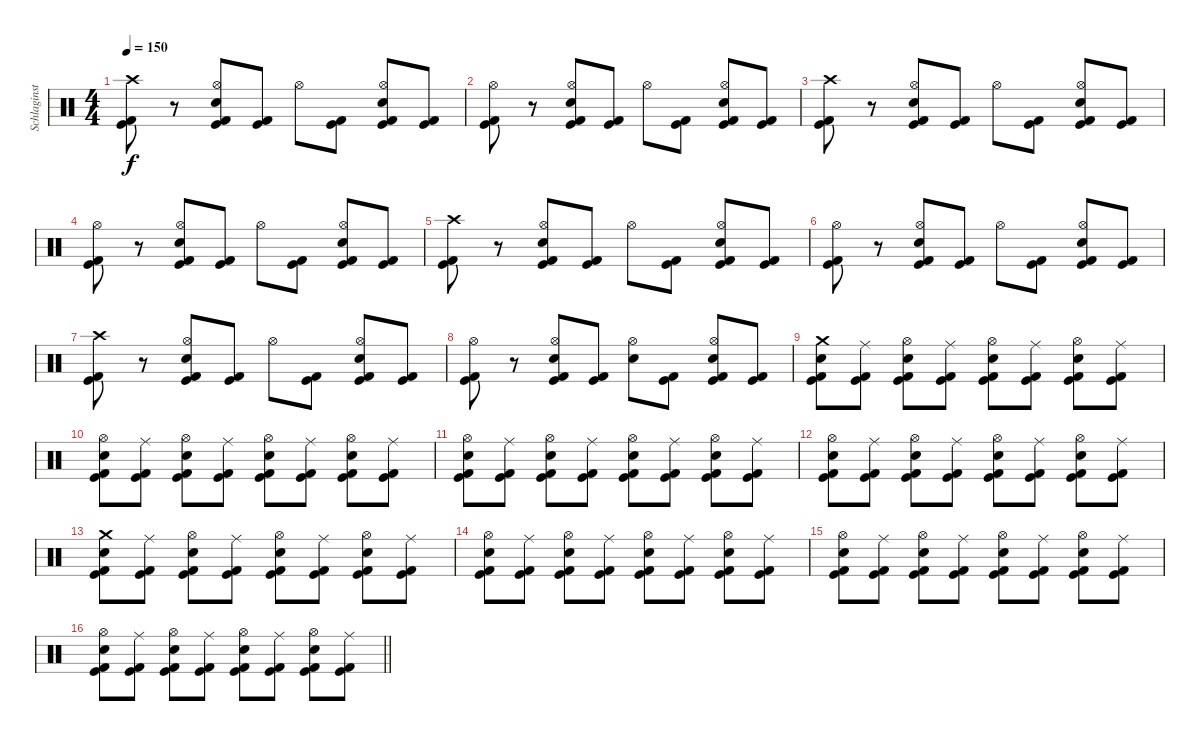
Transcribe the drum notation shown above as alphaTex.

\track ("Schlaginstrumente - Auswahl" "Schlaginst") {instrument percussion}
\staff {score}
\articulation defaults
\ts (4 4)
\tempo 150
\clef neutral
\ks c
("Crash high (hit)" "Kick (hit)" "Kick (hit) 2").8{dy f} r.8 ("Hi-Hat (open)" "Electric Snare (hit)" "Kick (hit)" "Kick (hit) 2").8 ("Kick (hit)" "Kick (hit) 2").8 "Hi-Hat (open)".8 ("Kick (hit)" "Kick (hit) 2").8 ("Hi-Hat (open)" "Electric Snare (hit)" "Kick (hit)" "Kick (hit) 2").8 ("Kick (hit)" "Kick (hit) 2").8 |
("Hi-Hat (open)" "Kick (hit)" "Kick (hit) 2").8 r.8 ("Hi-Hat (open)" "Electric Snare (hit)" "Kick (hit)" "Kick (hit) 2").8 ("Kick (hit)" "Kick (hit) 2").8 "Hi-Hat (open)".8 ("Kick (hit)" "Kick (hit) 2").8 ("Hi-Hat (open)" "Electric Snare (hit)" "Kick (hit)" "Kick (hit) 2").8 ("Kick (hit)" "Kick (hit) 2").8 |
("Crash high (hit)" "Kick (hit)" "Kick (hit) 2").8 r.8 ("Hi-Hat (open)" "Electric Snare (hit)" "Kick (hit)" "Kick (hit) 2").8 ("Kick (hit)" "Kick (hit) 2").8 "Hi-Hat (open)".8 ("Kick (hit)" "Kick (hit) 2").8 ("Hi-Hat (open)" "Electric Snare (hit)" "Kick (hit)" "Kick (hit) 2").8 ("Kick (hit)" "Kick (hit) 2").8 |
("Hi-Hat (open)" "Kick (hit)" "Kick (hit) 2").8 r.8 ("Hi-Hat (open)" "Electric Snare (hit)" "Kick (hit)" "Kick (hit) 2").8 ("Kick (hit)" "Kick (hit) 2").8 "Hi-Hat (open)".8 ("Kick (hit)" "Kick (hit) 2").8 ("Hi-Hat (open)" "Electric Snare (hit)" "Kick (hit)" "Kick (hit) 2").8 ("Kick (hit)" "Kick (hit) 2").8 |
("Crash high (hit)" "Kick (hit)" "Kick (hit) 2").8 r.8 ("Hi-Hat (open)" "Electric Snare (hit)" "Kick (hit)" "Kick (hit) 2").8 ("Kick (hit)" "Kick (hit) 2").8 "Hi-Hat (open)".8 ("Kick (hit)" "Kick (hit) 2").8 ("Hi-Hat (open)" "Electric Snare (hit)" "Kick (hit)" "Kick (hit) 2").8 ("Kick (hit)" "Kick (hit) 2").8 |
("Hi-Hat (open)" "Kick (hit)" "Kick (hit) 2").8 r.8 ("Hi-Hat (open)" "Electric Snare (hit)" "Kick (hit)" "Kick (hit) 2").8 ("Kick (hit)" "Kick (hit) 2").8 "Hi-Hat (open)".8 ("Kick (hit)" "Kick (hit) 2").8 ("Hi-Hat (open)" "Electric Snare (hit)" "Kick (hit)" "Kick (hit) 2").8 ("Kick (hit)" "Kick (hit) 2").8 |
("Crash high (hit)" "Kick (hit)" "Kick (hit) 2").8 r.8 ("Hi-Hat (open)" "Electric Snare (hit)" "Kick (hit)" "Kick (hit) 2").8 ("Kick (hit)" "Kick (hit) 2").8 "Hi-Hat (open)".8 ("Kick (hit)" "Kick (hit) 2").8 ("Hi-Hat (open)" "Electric Snare (hit)" "Kick (hit)" "Kick (hit) 2").8 ("Kick (hit)" "Kick (hit) 2").8 |
("Hi-Hat (open)" "Kick (hit)" "Kick (hit) 2").8 r.8 ("Hi-Hat (open)" "Electric Snare (hit)" "Kick (hit)" "Kick (hit) 2").8 ("Kick (hit)" "Kick (hit) 2").8 ("Hi-Hat (open)" "Electric Snare (hit)").8 ("Kick (hit)" "Kick (hit) 2").8 ("Hi-Hat (open)" "Electric Snare (hit)" "Kick (hit)" "Kick (hit) 2").8 ("Kick (hit)" "Kick (hit) 2").8 |
("Crash medium (hit)" "Electric Snare (hit)" "Kick (hit)" "Kick (hit) 2").8 ("Ride (middle)" "Kick (hit)" "Kick (hit) 2").8 ("Hi-Hat (open)" "Electric Snare (hit)" "Kick (hit)" "Kick (hit) 2").8 ("Ride (middle)" "Kick (hit)" "Kick (hit) 2").8 ("Hi-Hat (open)" "Electric Snare (hit)" "Kick (hit)" "Kick (hit) 2").8 ("Ride (middle)" "Kick (hit)" "Kick (hit) 2").8 ("Hi-Hat (open)" "Electric Snare (hit)" "Kick (hit)" "Kick (hit) 2").8 ("Ride (middle)" "Kick (hit)" "Kick (hit) 2").8 |
("Hi-Hat (open)" "Electric Snare (hit)" "Kick (hit)" "Kick (hit) 2").8 ("Ride (middle)" "Kick (hit)" "Kick (hit) 2").8 ("Hi-Hat (open)" "Electric Snare (hit)" "Kick (hit)" "Kick (hit) 2").8 ("Ride (middle)" "Kick (hit)" "Kick (hit) 2").8 ("Hi-Hat (open)" "Electric Snare (hit)" "Kick (hit)" "Kick (hit) 2").8 ("Ride (middle)" "Kick (hit)" "Kick (hit) 2").8 ("Hi-Hat (open)" "Electric Snare (hit)" "Kick (hit)" "Kick (hit) 2").8 ("Ride (middle)" "Kick (hit)" "Kick (hit) 2").8 |
("Hi-Hat (open)" "Electric Snare (hit)" "Kick (hit)" "Kick (hit) 2").8 ("Ride (middle)" "Kick (hit)" "Kick (hit) 2").8 ("Hi-Hat (open)" "Electric Snare (hit)" "Kick (hit)" "Kick (hit) 2").8 ("Ride (middle)" "Kick (hit)" "Kick (hit) 2").8 ("Hi-Hat (open)" "Electric Snare (hit)" "Kick (hit)" "Kick (hit) 2").8 ("Ride (middle)" "Kick (hit)" "Kick (hit) 2").8 ("Hi-Hat (open)" "Electric Snare (hit)" "Kick (hit)" "Kick (hit) 2").8 ("Ride (middle)" "Kick (hit)" "Kick (hit) 2").8 |
("Hi-Hat (open)" "Electric Snare (hit)" "Kick (hit)" "Kick (hit) 2").8 ("Ride (middle)" "Kick (hit)" "Kick (hit) 2").8 ("Hi-Hat (open)" "Electric Snare (hit)" "Kick (hit)" "Kick (hit) 2").8 ("Ride (middle)" "Kick (hit)" "Kick (hit) 2").8 ("Hi-Hat (open)" "Electric Snare (hit)" "Kick (hit)" "Kick (hit) 2").8 ("Ride (middle)" "Kick (hit)" "Kick (hit) 2").8 ("Hi-Hat (open)" "Electric Snare (hit)" "Kick (hit)" "Kick (hit) 2").8 ("Ride (middle)" "Kick (hit)" "Kick (hit) 2").8 |
("Crash medium (hit)" "Electric Snare (hit)" "Kick (hit)" "Kick (hit) 2").8 ("Ride (middle)" "Kick (hit)" "Kick (hit) 2").8 ("Hi-Hat (open)" "Electric Snare (hit)" "Kick (hit)" "Kick (hit) 2").8 ("Ride (middle)" "Kick (hit)" "Kick (hit) 2").8 ("Hi-Hat (open)" "Electric Snare (hit)" "Kick (hit)" "Kick (hit) 2").8 ("Ride (middle)" "Kick (hit)" "Kick (hit) 2").8 ("Hi-Hat (open)" "Electric Snare (hit)" "Kick (hit)" "Kick (hit) 2").8 ("Ride (middle)" "Kick (hit)" "Kick (hit) 2").8 |
("Hi-Hat (open)" "Electric Snare (hit)" "Kick (hit)" "Kick (hit) 2").8 ("Ride (middle)" "Kick (hit)" "Kick (hit) 2").8 ("Hi-Hat (open)" "Electric Snare (hit)" "Kick (hit)" "Kick (hit) 2").8 ("Ride (middle)" "Kick (hit)" "Kick (hit) 2").8 ("Hi-Hat (open)" "Electric Snare (hit)" "Kick (hit)" "Kick (hit) 2").8 ("Ride (middle)" "Kick (hit)" "Kick (hit) 2").8 ("Hi-Hat (open)" "Electric Snare (hit)" "Kick (hit)" "Kick (hit) 2").8 ("Ride (middle)" "Kick (hit)" "Kick (hit) 2").8 |
("Hi-Hat (open)" "Electric Snare (hit)" "Kick (hit)" "Kick (hit) 2").8 ("Ride (middle)" "Kick (hit)" "Kick (hit) 2").8 ("Hi-Hat (open)" "Electric Snare (hit)" "Kick (hit)" "Kick (hit) 2").8 ("Ride (middle)" "Kick (hit)" "Kick (hit) 2").8 ("Hi-Hat (open)" "Electric Snare (hit)" "Kick (hit)" "Kick (hit) 2").8 ("Ride (middle)" "Kick (hit)" "Kick (hit) 2").8 ("Hi-Hat (open)" "Electric Snare (hit)" "Kick (hit)" "Kick (hit) 2").8 ("Ride (middle)" "Kick (hit)" "Kick (hit) 2").8 |
\barLineRight lightlight
("Hi-Hat (open)" "Electric Snare (hit)" "Kick (hit)" "Kick (hit) 2").8 ("Ride (middle)" "Kick (hit)" "Kick (hit) 2").8 ("Hi-Hat (open)" "Electric Snare (hit)" "Kick (hit)" "Kick (hit) 2").8 ("Ride (middle)" "Kick (hit)" "Kick (hit) 2").8 ("Hi-Hat (open)" "Electric Snare (hit)" "Kick (hit)" "Kick (hit) 2").8 ("Ride (middle)" "Kick (hit)" "Kick (hit) 2").8 ("Hi-Hat (open)" "Electric Snare (hit)" "Kick (hit)" "Kick (hit) 2").8 ("Ride (middle)" "Kick (hit)" "Kick (hit) 2").8
